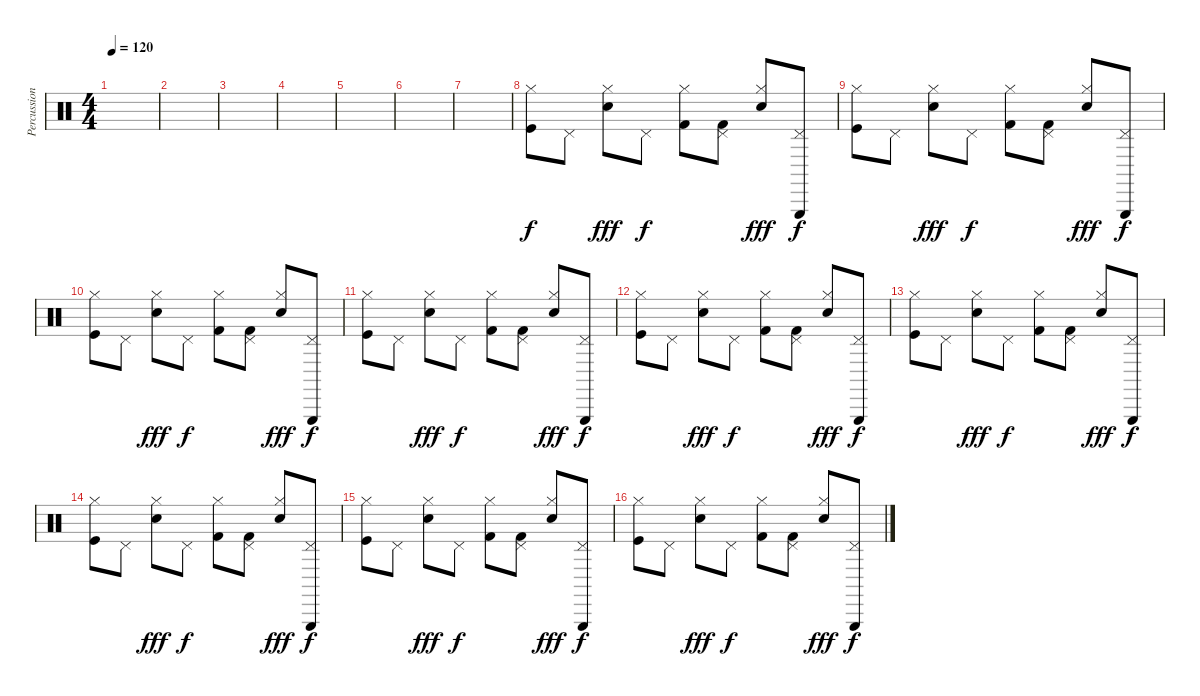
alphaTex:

\track ("Percussions" "Percussion") {instrument percussion}
\staff {score}
\articulation defaults
\ts (4 4)
\tempo 120
\clef neutral
\ks c
|
|
|
|
|
|
|
("Hi-Hat (closed)" "Kick (hit)").8 "Pedal Hi-Hat (hit)".8 ("Electric Snare (hit)" "Hi-Hat (closed)").8{dy fff} "Pedal Hi-Hat (hit)".8{dy f} ("Kick (hit) 2" "Hi-Hat (closed)").8 ("Kick (hit) 2" "Pedal Hi-Hat (hit)").8 ("Electric Snare (hit)" "Hi-Hat (closed)").8{dy fff} ("Triangle (hit)" "Pedal Hi-Hat (hit)").8{dy f} |
("Hi-Hat (closed)" "Kick (hit)").8 "Pedal Hi-Hat (hit)".8 ("Electric Snare (hit)" "Hi-Hat (closed)").8{dy fff} "Pedal Hi-Hat (hit)".8{dy f} ("Kick (hit) 2" "Hi-Hat (closed)").8 ("Kick (hit) 2" "Pedal Hi-Hat (hit)").8 ("Electric Snare (hit)" "Hi-Hat (closed)").8{dy fff} ("Triangle (hit)" "Pedal Hi-Hat (hit)").8{dy f} |
("Hi-Hat (closed)" "Kick (hit)").8 "Pedal Hi-Hat (hit)".8 ("Electric Snare (hit)" "Hi-Hat (closed)").8{dy fff} "Pedal Hi-Hat (hit)".8{dy f} ("Kick (hit) 2" "Hi-Hat (closed)").8 ("Kick (hit) 2" "Pedal Hi-Hat (hit)").8 ("Electric Snare (hit)" "Hi-Hat (closed)").8{dy fff} ("Triangle (hit)" "Pedal Hi-Hat (hit)").8{dy f} |
("Hi-Hat (closed)" "Kick (hit)").8 "Pedal Hi-Hat (hit)".8 ("Electric Snare (hit)" "Hi-Hat (closed)").8{dy fff} "Pedal Hi-Hat (hit)".8{dy f} ("Kick (hit) 2" "Hi-Hat (closed)").8 ("Kick (hit) 2" "Pedal Hi-Hat (hit)").8 ("Electric Snare (hit)" "Hi-Hat (closed)").8{dy fff} ("Triangle (hit)" "Pedal Hi-Hat (hit)").8{dy f} |
("Hi-Hat (closed)" "Kick (hit)").8 "Pedal Hi-Hat (hit)".8 ("Electric Snare (hit)" "Hi-Hat (closed)").8{dy fff} "Pedal Hi-Hat (hit)".8{dy f} ("Kick (hit) 2" "Hi-Hat (closed)").8 ("Kick (hit) 2" "Pedal Hi-Hat (hit)").8 ("Electric Snare (hit)" "Hi-Hat (closed)").8{dy fff} ("Triangle (hit)" "Pedal Hi-Hat (hit)").8{dy f} |
("Hi-Hat (closed)" "Kick (hit)").8 "Pedal Hi-Hat (hit)".8 ("Electric Snare (hit)" "Hi-Hat (closed)").8{dy fff} "Pedal Hi-Hat (hit)".8{dy f} ("Kick (hit) 2" "Hi-Hat (closed)").8 ("Kick (hit) 2" "Pedal Hi-Hat (hit)").8 ("Electric Snare (hit)" "Hi-Hat (closed)").8{dy fff} ("Triangle (hit)" "Pedal Hi-Hat (hit)").8{dy f} |
("Hi-Hat (closed)" "Kick (hit)").8 "Pedal Hi-Hat (hit)".8 ("Electric Snare (hit)" "Hi-Hat (closed)").8{dy fff} "Pedal Hi-Hat (hit)".8{dy f} ("Kick (hit) 2" "Hi-Hat (closed)").8 ("Kick (hit) 2" "Pedal Hi-Hat (hit)").8 ("Electric Snare (hit)" "Hi-Hat (closed)").8{dy fff} ("Triangle (hit)" "Pedal Hi-Hat (hit)").8{dy f} |
("Hi-Hat (closed)" "Kick (hit)").8 "Pedal Hi-Hat (hit)".8 ("Electric Snare (hit)" "Hi-Hat (closed)").8{dy fff} "Pedal Hi-Hat (hit)".8{dy f} ("Kick (hit) 2" "Hi-Hat (closed)").8 ("Kick (hit) 2" "Pedal Hi-Hat (hit)").8 ("Electric Snare (hit)" "Hi-Hat (closed)").8{dy fff} ("Triangle (hit)" "Pedal Hi-Hat (hit)").8{dy f} |
("Hi-Hat (closed)" "Kick (hit)").8 "Pedal Hi-Hat (hit)".8 ("Electric Snare (hit)" "Hi-Hat (closed)").8{dy fff} "Pedal Hi-Hat (hit)".8{dy f} ("Kick (hit) 2" "Hi-Hat (closed)").8 ("Kick (hit) 2" "Pedal Hi-Hat (hit)").8 ("Electric Snare (hit)" "Hi-Hat (closed)").8{dy fff} ("Triangle (hit)" "Pedal Hi-Hat (hit)").8{dy f}
